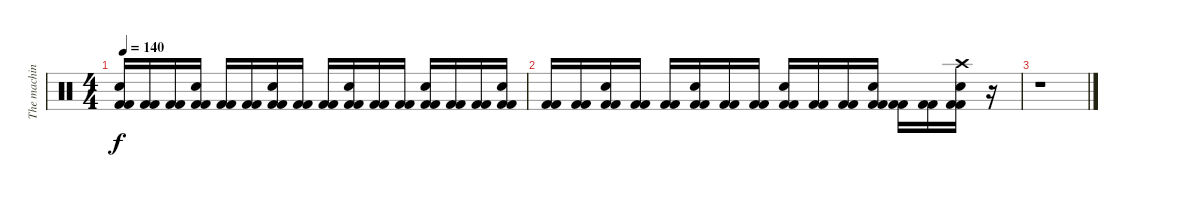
\track ("The machine Reloaded" "The machin") {instrument percussion}
\staff {score}
\articulation defaults
\ts (4 4)
\tempo 140
\clef neutral
\ks c
("Kick (hit) 2" "Snare (hit) 2" "Kick (hit) 2").16{dy f} ("Kick (hit) 2" "Kick (hit) 2").16 ("Kick (hit) 2" "Kick (hit) 2").16 ("Kick (hit) 2" "Snare (hit) 2" "Kick (hit) 2").16 ("Kick (hit) 2" "Kick (hit) 2").16 ("Kick (hit) 2" "Kick (hit) 2").16 ("Kick (hit) 2" "Snare (hit) 2" "Kick (hit) 2").16 ("Kick (hit) 2" "Kick (hit) 2").16 ("Kick (hit) 2" "Kick (hit) 2").16 ("Kick (hit) 2" "Snare (hit) 2" "Kick (hit) 2").16 ("Kick (hit) 2" "Kick (hit) 2").16 ("Kick (hit) 2" "Kick (hit) 2").16 ("Kick (hit) 2" "Snare (hit) 2" "Kick (hit) 2").16 ("Kick (hit) 2" "Kick (hit) 2").16 ("Kick (hit) 2" "Kick (hit) 2").16 ("Kick (hit) 2" "Snare (hit) 2" "Kick (hit) 2").16 |
("Kick (hit) 2" "Kick (hit) 2").16 ("Kick (hit) 2" "Kick (hit) 2").16 ("Kick (hit) 2" "Snare (hit) 2" "Kick (hit) 2").16 ("Kick (hit) 2" "Kick (hit) 2").16 ("Kick (hit) 2" "Kick (hit) 2").16 ("Kick (hit) 2" "Snare (hit) 2" "Kick (hit) 2").16 ("Kick (hit) 2" "Kick (hit) 2").16 ("Kick (hit) 2" "Kick (hit) 2").16 ("Kick (hit) 2" "Snare (hit) 2" "Kick (hit) 2").16 ("Kick (hit) 2" "Kick (hit) 2").16 ("Kick (hit) 2" "Kick (hit) 2").16 ("Kick (hit) 2" "Snare (hit) 2" "Kick (hit) 2").16 ("Kick (hit) 2" "Kick (hit) 2").16 ("Kick (hit) 2" "Kick (hit) 2").16 ("Crash high (hit)" "Kick (hit) 2" "Snare (hit) 2" "Kick (hit) 2").16 r.16 |
r.1
